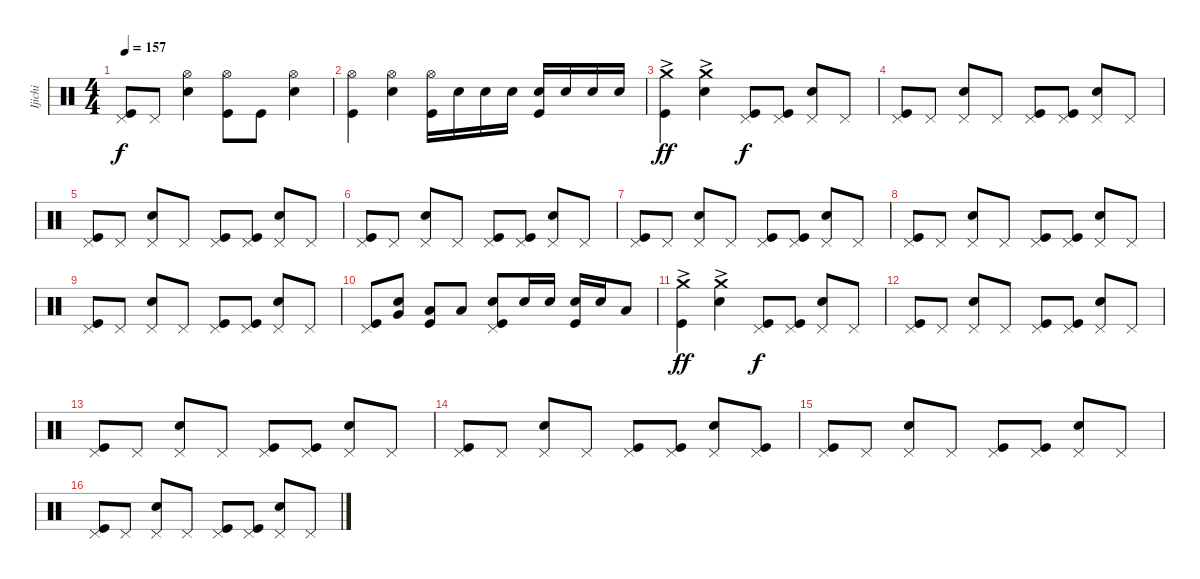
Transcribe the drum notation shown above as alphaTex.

\track ("Ijichi" "Ijichi") {instrument percussion}
\staff {score}
\articulation defaults
\ts (4 4)
\tempo 157
\clef neutral
\ks c
("Pedal Hi-Hat (hit)" "Kick (hit)").8{dy f} "Pedal Hi-Hat (hit)".8 ("Hi-Hat (open)" "Snare (hit) 2").4 ("Hi-Hat (open)" "Kick (hit)").8 "Kick (hit)".8 ("Hi-Hat (open)" "Snare (hit) 2").4 |
("Hi-Hat (open)" "Kick (hit)").4 ("Hi-Hat (open)" "Snare (hit) 2").4 ("Hi-Hat (open)" "Kick (hit)").16 "Snare (hit) 2".16 "Snare (hit) 2".16 "Snare (hit) 2".16 ("Snare (hit) 2" "Kick (hit)").16 "Snare (hit) 2".16 "Snare (hit) 2".16 "Snare (hit) 2".16 |
("Crash medium (hit)"{ac} "Kick (hit)").4{dy ff} ("Crash medium (hit)"{ac} "Snare (hit) 2").4 ("Pedal Hi-Hat (hit)" "Kick (hit)").8{dy f} ("Pedal Hi-Hat (hit)" "Kick (hit)").8 ("Pedal Hi-Hat (hit)" "Snare (hit) 2").8 "Pedal Hi-Hat (hit)".8 |
("Pedal Hi-Hat (hit)" "Kick (hit)").8 "Pedal Hi-Hat (hit)".8 ("Pedal Hi-Hat (hit)" "Snare (hit) 2").8 "Pedal Hi-Hat (hit)".8 ("Pedal Hi-Hat (hit)" "Kick (hit)").8 ("Pedal Hi-Hat (hit)" "Kick (hit)").8 ("Pedal Hi-Hat (hit)" "Snare (hit) 2").8 "Pedal Hi-Hat (hit)".8 |
("Pedal Hi-Hat (hit)" "Kick (hit)").8 "Pedal Hi-Hat (hit)".8 ("Pedal Hi-Hat (hit)" "Snare (hit) 2").8 "Pedal Hi-Hat (hit)".8 ("Pedal Hi-Hat (hit)" "Kick (hit)").8 ("Pedal Hi-Hat (hit)" "Kick (hit)").8 ("Pedal Hi-Hat (hit)" "Snare (hit) 2").8 "Pedal Hi-Hat (hit)".8 |
("Pedal Hi-Hat (hit)" "Kick (hit)").8 "Pedal Hi-Hat (hit)".8 ("Pedal Hi-Hat (hit)" "Snare (hit) 2").8 "Pedal Hi-Hat (hit)".8 ("Pedal Hi-Hat (hit)" "Kick (hit)").8 ("Pedal Hi-Hat (hit)" "Kick (hit)").8 ("Pedal Hi-Hat (hit)" "Snare (hit) 2").8 "Pedal Hi-Hat (hit)".8 |
("Pedal Hi-Hat (hit)" "Kick (hit)").8 "Pedal Hi-Hat (hit)".8 ("Pedal Hi-Hat (hit)" "Snare (hit) 2").8 "Pedal Hi-Hat (hit)".8 ("Pedal Hi-Hat (hit)" "Kick (hit)").8 ("Pedal Hi-Hat (hit)" "Kick (hit)").8 ("Pedal Hi-Hat (hit)" "Snare (hit) 2").8 "Pedal Hi-Hat (hit)".8 |
("Pedal Hi-Hat (hit)" "Kick (hit)").8 "Pedal Hi-Hat (hit)".8 ("Pedal Hi-Hat (hit)" "Snare (hit) 2").8 "Pedal Hi-Hat (hit)".8 ("Pedal Hi-Hat (hit)" "Kick (hit)").8 ("Pedal Hi-Hat (hit)" "Kick (hit)").8 ("Pedal Hi-Hat (hit)" "Snare (hit) 2").8 "Pedal Hi-Hat (hit)".8 |
("Pedal Hi-Hat (hit)" "Kick (hit)").8 "Pedal Hi-Hat (hit)".8 ("Pedal Hi-Hat (hit)" "Snare (hit) 2").8 "Pedal Hi-Hat (hit)".8 ("Pedal Hi-Hat (hit)" "Kick (hit)").8 ("Pedal Hi-Hat (hit)" "Kick (hit)").8 ("Pedal Hi-Hat (hit)" "Snare (hit) 2").8 "Pedal Hi-Hat (hit)".8 |
("Pedal Hi-Hat (hit)" "Kick (hit)").8 ("Snare (hit) 2" "Very Low Tom (hit)").8 ("Low Tom (hit)" "Kick (hit)").8 "Low Tom (hit)".8 ("Pedal Hi-Hat (hit)" "Snare (hit) 2" "Kick (hit)").8 "Snare (hit) 2".16 "Snare (hit) 2".16 ("Snare (hit) 2" "Kick (hit)").16 "Snare (hit) 2".16 "Low Tom (hit)".8 |
("Crash medium (hit)"{ac} "Kick (hit)").4{dy ff} ("Crash medium (hit)"{ac} "Snare (hit) 2").4 ("Pedal Hi-Hat (hit)" "Kick (hit)").8{dy f} ("Pedal Hi-Hat (hit)" "Kick (hit)").8 ("Pedal Hi-Hat (hit)" "Snare (hit) 2").8 "Pedal Hi-Hat (hit)".8 |
("Pedal Hi-Hat (hit)" "Kick (hit)").8 "Pedal Hi-Hat (hit)".8 ("Pedal Hi-Hat (hit)" "Snare (hit) 2").8 "Pedal Hi-Hat (hit)".8 ("Pedal Hi-Hat (hit)" "Kick (hit)").8 ("Pedal Hi-Hat (hit)" "Kick (hit)").8 ("Pedal Hi-Hat (hit)" "Snare (hit) 2").8 "Pedal Hi-Hat (hit)".8 |
("Pedal Hi-Hat (hit)" "Kick (hit)").8 "Pedal Hi-Hat (hit)".8 ("Pedal Hi-Hat (hit)" "Snare (hit) 2").8 "Pedal Hi-Hat (hit)".8 ("Pedal Hi-Hat (hit)" "Kick (hit)").8 ("Pedal Hi-Hat (hit)" "Kick (hit)").8 ("Pedal Hi-Hat (hit)" "Snare (hit) 2").8 "Pedal Hi-Hat (hit)".8 |
("Pedal Hi-Hat (hit)" "Kick (hit)").8 "Pedal Hi-Hat (hit)".8 ("Pedal Hi-Hat (hit)" "Snare (hit) 2").8 "Pedal Hi-Hat (hit)".8 ("Pedal Hi-Hat (hit)" "Kick (hit)").8 ("Pedal Hi-Hat (hit)" "Kick (hit)").8 ("Pedal Hi-Hat (hit)" "Snare (hit) 2").8 ("Pedal Hi-Hat (hit)" "Kick (hit)").8 |
("Pedal Hi-Hat (hit)" "Kick (hit)").8 "Pedal Hi-Hat (hit)".8 ("Pedal Hi-Hat (hit)" "Snare (hit) 2").8 "Pedal Hi-Hat (hit)".8 ("Pedal Hi-Hat (hit)" "Kick (hit)").8 ("Pedal Hi-Hat (hit)" "Kick (hit)").8 ("Pedal Hi-Hat (hit)" "Snare (hit) 2").8 "Pedal Hi-Hat (hit)".8 |
("Pedal Hi-Hat (hit)" "Kick (hit)").8 "Pedal Hi-Hat (hit)".8 ("Pedal Hi-Hat (hit)" "Snare (hit) 2").8 "Pedal Hi-Hat (hit)".8 ("Pedal Hi-Hat (hit)" "Kick (hit)").8 ("Pedal Hi-Hat (hit)" "Kick (hit)").8 ("Pedal Hi-Hat (hit)" "Snare (hit) 2").8 "Pedal Hi-Hat (hit)".8
